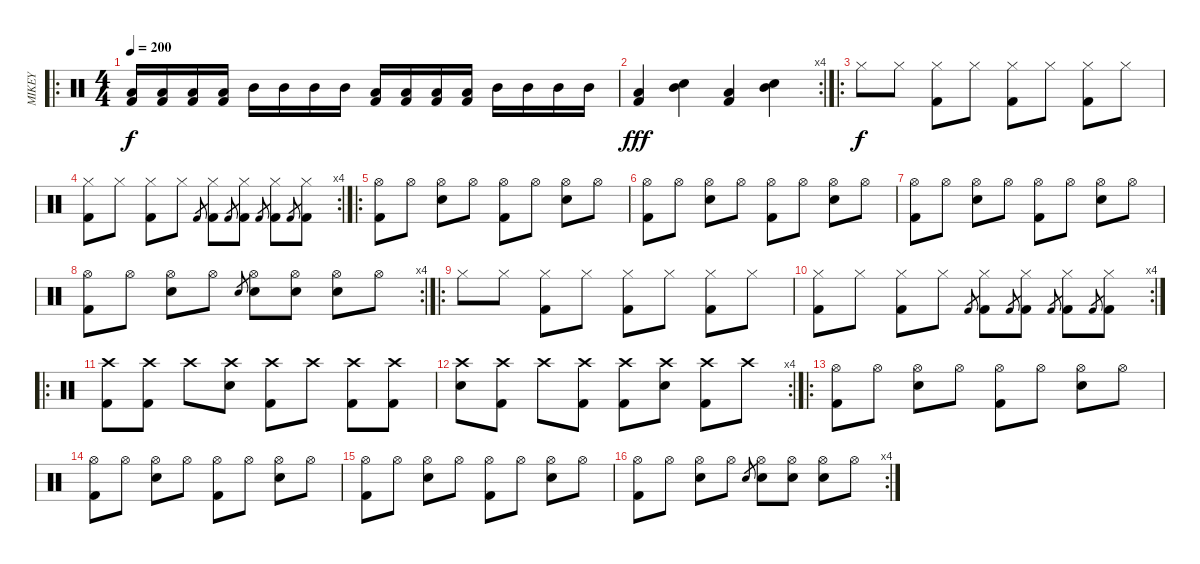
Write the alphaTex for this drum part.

\track ("MIKEY" "MIKEY") {instrument percussion}
\staff {score}
\articulation defaults
\ro
\ts (4 4)
\tempo 200
\clef neutral
\ks c
("Kick (hit) 2" "Low Floor Tom (hit)").16{dy f} ("Kick (hit) 2" "Low Floor Tom (hit)").16 ("Kick (hit) 2" "Low Floor Tom (hit)").16 ("Kick (hit) 2" "Low Floor Tom (hit)").16 "Mid Tom (hit)".16 "Mid Tom (hit)".16 "Mid Tom (hit)".16 "Mid Tom (hit)".16 ("Kick (hit) 2" "Low Floor Tom (hit)").16 ("Kick (hit) 2" "Low Floor Tom (hit)").16 ("Kick (hit) 2" "Low Floor Tom (hit)").16 ("Kick (hit) 2" "Low Floor Tom (hit)").16 "Mid Tom (hit)".16 "Mid Tom (hit)".16 "Mid Tom (hit)".16 "Mid Tom (hit)".16 |
\rc 4
("Low Floor Tom (hit)" "Kick (hit) 2").4{dy fff} ("Mid Tom (hit)" "Snare (hit) 2").4 ("Low Floor Tom (hit)" "Kick (hit) 2").4 ("Mid Tom (hit)" "Snare (hit) 2").4 |
\ro "Hi-Hat (closed)".8{dy f} "Hi-Hat (closed)".8
("Kick (hit) 2" "Hi-Hat (closed)").8 "Hi-Hat (closed)".8 ("Kick (hit) 2" "Hi-Hat (closed)").8 "Hi-Hat (closed)".8 ("Kick (hit) 2" "Hi-Hat (closed)").8 "Hi-Hat (closed)".8 |
\rc 4
("Kick (hit) 2" "Hi-Hat (closed)").8 "Hi-Hat (closed)".8 ("Kick (hit) 2" "Hi-Hat (closed)").8 "Hi-Hat (closed)".8 "Kick (hit) 2".8{gr} ("Kick (hit) 2" "Hi-Hat (closed)").8 "Kick (hit) 2".8{gr} ("Kick (hit) 2" "Hi-Hat (closed)").8 "Kick (hit) 2".8{gr} ("Kick (hit) 2" "Hi-Hat (closed)").8 "Kick (hit) 2".8{gr} ("Kick (hit) 2" "Hi-Hat (closed)").8 |
\ro
("Kick (hit) 2" "Hi-Hat (open)").8 "Hi-Hat (open)".8 ("Electric Snare (hit)" "Hi-Hat (open)").8 "Hi-Hat (open)".8 ("Kick (hit) 2" "Hi-Hat (open)").8 "Hi-Hat (open)".8 ("Electric Snare (hit)" "Hi-Hat (open)").8 "Hi-Hat (open)".8 |
("Kick (hit) 2" "Hi-Hat (open)").8 "Hi-Hat (open)".8 ("Electric Snare (hit)" "Hi-Hat (open)").8 "Hi-Hat (open)".8 ("Kick (hit) 2" "Hi-Hat (open)").8 "Hi-Hat (open)".8 ("Electric Snare (hit)" "Hi-Hat (open)").8 "Hi-Hat (open)".8 |
("Kick (hit) 2" "Hi-Hat (open)").8 "Hi-Hat (open)".8 ("Electric Snare (hit)" "Hi-Hat (open)").8 "Hi-Hat (open)".8 ("Kick (hit) 2" "Hi-Hat (open)").8 "Hi-Hat (open)".8 ("Electric Snare (hit)" "Hi-Hat (open)").8 "Hi-Hat (open)".8 |
\rc 4
("Kick (hit) 2" "Hi-Hat (open)").8 "Hi-Hat (open)".8 ("Electric Snare (hit)" "Hi-Hat (open)").8 "Hi-Hat (open)".8 "Electric Snare (hit)".8{gr} ("Electric Snare (hit)" "Hi-Hat (open)").8 ("Electric Snare (hit)" "Hi-Hat (open)").8 ("Electric Snare (hit)" "Hi-Hat (open)").8 "Hi-Hat (open)".8 |
\ro "Hi-Hat (closed)".8 "Hi-Hat (closed)".8
("Kick (hit) 2" "Hi-Hat (closed)").8 "Hi-Hat (closed)".8 ("Kick (hit) 2" "Hi-Hat (closed)").8 "Hi-Hat (closed)".8 ("Kick (hit) 2" "Hi-Hat (closed)").8 "Hi-Hat (closed)".8 |
\rc 4
("Kick (hit) 2" "Hi-Hat (closed)").8 "Hi-Hat (closed)".8 ("Kick (hit) 2" "Hi-Hat (closed)").8 "Hi-Hat (closed)".8 "Kick (hit) 2".8{gr} ("Kick (hit) 2" "Hi-Hat (closed)").8 "Kick (hit) 2".8{gr} ("Kick (hit) 2" "Hi-Hat (closed)").8 "Kick (hit) 2".8{gr} ("Kick (hit) 2" "Hi-Hat (closed)").8 "Kick (hit) 2".8{gr} ("Kick (hit) 2" "Hi-Hat (closed)").8 |
\ro
("Kick (hit) 2" "Crash high (hit)").8 ("Kick (hit) 2" "Crash high (hit)").8 "Crash high (hit)".8 ("Snare (hit) 2" "Crash high (hit)").8 ("Kick (hit) 2" "Crash high (hit)").8 "Crash high (hit)".8 ("Kick (hit) 2" "Crash high (hit)").8 ("Kick (hit) 2" "Crash high (hit)").8 |
\rc 4
("Snare (hit) 2" "Crash high (hit)").8 ("Kick (hit) 2" "Crash high (hit)").8 "Crash high (hit)".8 ("Kick (hit) 2" "Crash high (hit)").8 ("Kick (hit) 2" "Crash high (hit)").8 ("Snare (hit) 2" "Crash high (hit)").8 ("Kick (hit) 2" "Crash high (hit)").8 "Crash high (hit)".8 |
\ro
("Kick (hit) 2" "Hi-Hat (open)").8 "Hi-Hat (open)".8 ("Electric Snare (hit)" "Hi-Hat (open)").8 "Hi-Hat (open)".8 ("Kick (hit) 2" "Hi-Hat (open)").8 "Hi-Hat (open)".8 ("Electric Snare (hit)" "Hi-Hat (open)").8 "Hi-Hat (open)".8 |
("Kick (hit) 2" "Hi-Hat (open)").8 "Hi-Hat (open)".8 ("Electric Snare (hit)" "Hi-Hat (open)").8 "Hi-Hat (open)".8 ("Kick (hit) 2" "Hi-Hat (open)").8 "Hi-Hat (open)".8 ("Electric Snare (hit)" "Hi-Hat (open)").8 "Hi-Hat (open)".8 |
("Kick (hit) 2" "Hi-Hat (open)").8 "Hi-Hat (open)".8 ("Electric Snare (hit)" "Hi-Hat (open)").8 "Hi-Hat (open)".8 ("Kick (hit) 2" "Hi-Hat (open)").8 "Hi-Hat (open)".8 ("Electric Snare (hit)" "Hi-Hat (open)").8 "Hi-Hat (open)".8 |
\rc 4
("Kick (hit) 2" "Hi-Hat (open)").8 "Hi-Hat (open)".8 ("Electric Snare (hit)" "Hi-Hat (open)").8 "Hi-Hat (open)".8 "Electric Snare (hit)".8{gr} ("Electric Snare (hit)" "Hi-Hat (open)").8 ("Electric Snare (hit)" "Hi-Hat (open)").8 ("Electric Snare (hit)" "Hi-Hat (open)").8 "Hi-Hat (open)".8
